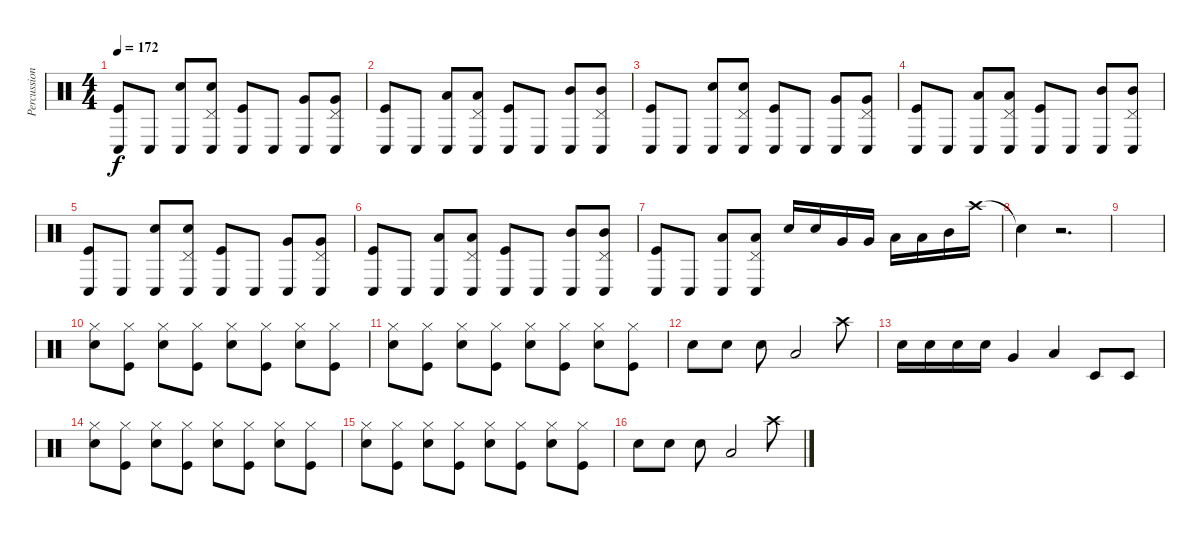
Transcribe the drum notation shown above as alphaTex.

\track ("Percussion" "Percussion") {instrument percussion}
\staff {score}
\articulation defaults
\ts (4 4)
\tempo 172
\clef neutral
\ks c
("Kick (hit)" "Conga low (hit)").8{dy f} "Conga low (hit)".8 ("Snare (hit) 2" "Conga low (hit)").8 ("Pedal Hi-Hat (hit)" "Snare (hit) 2" "Conga low (hit)").8 ("Kick (hit)" "Conga low (hit)").8 "Conga low (hit)".8 ("Very Low Tom (hit)" "Conga low (hit)").8 ("Pedal Hi-Hat (hit)" "Very Low Tom (hit)" "Conga low (hit)").8 |
("Kick (hit)" "Conga low (hit)").8 "Conga low (hit)".8 ("Low Tom (hit)" "Conga low (hit)").8 ("Pedal Hi-Hat (hit)" "Low Tom (hit)" "Conga low (hit)").8 ("Kick (hit)" "Conga low (hit)").8 "Conga low (hit)".8 ("Mid Tom (hit)" "Conga low (hit)").8 ("Pedal Hi-Hat (hit)" "Mid Tom (hit)" "Conga low (hit)").8 |
("Kick (hit)" "Conga low (hit)").8 "Conga low (hit)".8 ("Snare (hit) 2" "Conga low (hit)").8 ("Pedal Hi-Hat (hit)" "Snare (hit) 2" "Conga low (hit)").8 ("Kick (hit)" "Conga low (hit)").8 "Conga low (hit)".8 ("Very Low Tom (hit)" "Conga low (hit)").8 ("Pedal Hi-Hat (hit)" "Very Low Tom (hit)" "Conga low (hit)").8 |
("Kick (hit)" "Conga low (hit)").8 "Conga low (hit)".8 ("Low Tom (hit)" "Conga low (hit)").8 ("Pedal Hi-Hat (hit)" "Low Tom (hit)" "Conga low (hit)").8 ("Kick (hit)" "Conga low (hit)").8 "Conga low (hit)".8 ("Mid Tom (hit)" "Conga low (hit)").8 ("Pedal Hi-Hat (hit)" "Mid Tom (hit)" "Conga low (hit)").8 |
("Kick (hit)" "Conga low (hit)").8 "Conga low (hit)".8 ("Snare (hit) 2" "Conga low (hit)").8 ("Pedal Hi-Hat (hit)" "Snare (hit) 2" "Conga low (hit)").8 ("Kick (hit)" "Conga low (hit)").8 "Conga low (hit)".8 ("Very Low Tom (hit)" "Conga low (hit)").8 ("Pedal Hi-Hat (hit)" "Very Low Tom (hit)" "Conga low (hit)").8 |
("Kick (hit)" "Conga low (hit)").8 "Conga low (hit)".8 ("Low Tom (hit)" "Conga low (hit)").8 ("Pedal Hi-Hat (hit)" "Low Tom (hit)" "Conga low (hit)").8 ("Kick (hit)" "Conga low (hit)").8 "Conga low (hit)".8 ("Mid Tom (hit)" "Conga low (hit)").8 ("Pedal Hi-Hat (hit)" "Mid Tom (hit)" "Conga low (hit)").8 |
("Kick (hit)" "Conga low (hit)").8 "Conga low (hit)".8 ("Low Tom (hit)" "Conga low (hit)").8 ("Pedal Hi-Hat (hit)" "Low Tom (hit)" "Conga low (hit)").8 "Snare (hit) 2".16 "Snare (hit) 2".16 "Very Low Tom (hit)".16 "Very Low Tom (hit)".16 "Low Tom (hit)".16 "Low Tom (hit)".16 "Mid Tom (hit)".16 "Crash high (hit)".16 |
"Snare (hit)"{t}.4 r.2{d} |
|
("Hi-Hat (closed)" "Snare (hit) 2").8 ("Hi-Hat (closed)" "Kick (hit)").8 ("Hi-Hat (closed)" "Snare (hit) 2").8 ("Hi-Hat (closed)" "Kick (hit)").8 ("Hi-Hat (closed)" "Snare (hit) 2").8 ("Hi-Hat (closed)" "Kick (hit)").8 ("Hi-Hat (closed)" "Snare (hit) 2").8 ("Hi-Hat (closed)" "Kick (hit)").8 |
("Hi-Hat (closed)" "Snare (hit) 2").8 ("Hi-Hat (closed)" "Kick (hit)").8 ("Hi-Hat (closed)" "Snare (hit) 2").8 ("Hi-Hat (closed)" "Kick (hit)").8 ("Hi-Hat (closed)" "Snare (hit) 2").8 ("Hi-Hat (closed)" "Kick (hit)").8 ("Hi-Hat (closed)" "Snare (hit) 2").8 ("Hi-Hat (closed)" "Kick (hit)").8 |
"Snare (hit) 2".8 "Snare (hit) 2".8 "Snare (hit) 2".8 "Low Tom (hit)".2 "Crash high (hit)".8 |
"Snare (hit) 2".16 "Snare (hit) 2".16 "Snare (hit) 2".16 "Snare (hit) 2".16 "Very Low Tom (hit)".4 "Low Tom (hit)".4 "Timbale low (hit)".8 "Timbale low (hit)".8 |
("Hi-Hat (closed)" "Snare (hit) 2").8 ("Hi-Hat (closed)" "Kick (hit)").8 ("Hi-Hat (closed)" "Snare (hit) 2").8 ("Hi-Hat (closed)" "Kick (hit)").8 ("Hi-Hat (closed)" "Snare (hit) 2").8 ("Hi-Hat (closed)" "Kick (hit)").8 ("Hi-Hat (closed)" "Snare (hit) 2").8 ("Hi-Hat (closed)" "Kick (hit)").8 |
("Hi-Hat (closed)" "Snare (hit) 2").8 ("Hi-Hat (closed)" "Kick (hit)").8 ("Hi-Hat (closed)" "Snare (hit) 2").8 ("Hi-Hat (closed)" "Kick (hit)").8 ("Hi-Hat (closed)" "Snare (hit) 2").8 ("Hi-Hat (closed)" "Kick (hit)").8 ("Hi-Hat (closed)" "Snare (hit) 2").8 ("Hi-Hat (closed)" "Kick (hit)").8 |
"Snare (hit) 2".8 "Snare (hit) 2".8 "Snare (hit) 2".8 "Low Tom (hit)".2 "Crash high (hit)".8
